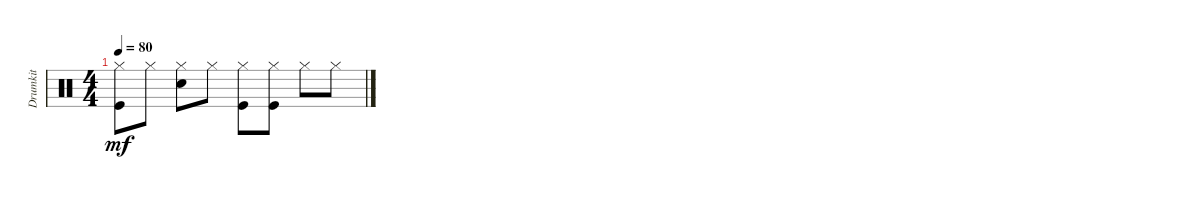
\track ("Drumkit" "Drumkit") {instrument percussion}
\staff {score}
\articulation defaults
\ts (4 4)
\tempo 80
\clef neutral
\ks c
("Hi-Hat (closed)" "Kick (hit)").8{dy mf} "Hi-Hat (closed)".8 ("Hi-Hat (closed)" "Snare (hit) 2").8 "Hi-Hat (closed)".8 ("Hi-Hat (closed)" "Kick (hit)").8 ("Hi-Hat (closed)" "Kick (hit)").8 "Hi-Hat (closed)".8 "Hi-Hat (closed)".8
